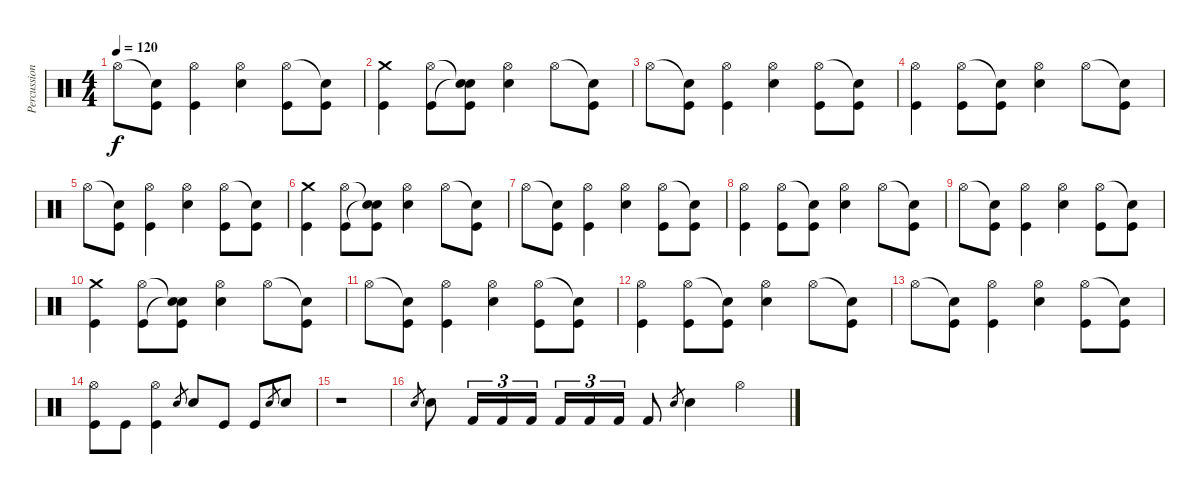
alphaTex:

\track ("Percussion" "Percussion") {instrument percussion}
\staff {score}
\articulation defaults
\ts (4 4)
\tempo 120
\clef neutral
\ks c "Hi-Hat (open)".8{dy f}
("Snare (hit)"{t} "Kick (hit)").8 ("Hi-Hat (open)" "Kick (hit)").4 ("Hi-Hat (open)" "Electric Snare (hit)").4 ("Hi-Hat (open)" "Kick (hit)").8 ("Snare (hit)"{t} "Kick (hit)").8 |
("Crash medium (hit)" "Kick (hit)").4 ("Hi-Hat (open)" "Kick (hit)").8 ("Snare (hit)"{t} "Snare (hit)"{t} "Kick (hit)").8 ("Hi-Hat (open)" "Electric Snare (hit)").4 "Hi-Hat (open)".8 ("Snare (hit)"{t} "Kick (hit)").8 |
"Hi-Hat (open)".8 ("Snare (hit)"{t} "Kick (hit)").8 ("Hi-Hat (open)" "Kick (hit)").4 ("Hi-Hat (open)" "Electric Snare (hit)").4 ("Hi-Hat (open)" "Kick (hit)").8 ("Snare (hit)"{t} "Kick (hit)").8 |
("Hi-Hat (open)" "Kick (hit)").4 ("Hi-Hat (open)" "Kick (hit)").8 ("Snare (hit)"{t} "Kick (hit)").8 ("Hi-Hat (open)" "Electric Snare (hit)").4 "Hi-Hat (open)".8 ("Snare (hit)"{t} "Kick (hit)").8 |
"Hi-Hat (open)".8 ("Snare (hit)"{t} "Kick (hit)").8 ("Hi-Hat (open)" "Kick (hit)").4 ("Hi-Hat (open)" "Electric Snare (hit)").4 ("Hi-Hat (open)" "Kick (hit)").8 ("Snare (hit)"{t} "Kick (hit)").8 |
("Crash medium (hit)" "Kick (hit)").4 ("Hi-Hat (open)" "Kick (hit)").8 ("Snare (hit)"{t} "Snare (hit)"{t} "Kick (hit)").8 ("Hi-Hat (open)" "Electric Snare (hit)").4 "Hi-Hat (open)".8 ("Snare (hit)"{t} "Kick (hit)").8 |
"Hi-Hat (open)".8 ("Snare (hit)"{t} "Kick (hit)").8 ("Hi-Hat (open)" "Kick (hit)").4 ("Hi-Hat (open)" "Electric Snare (hit)").4 ("Hi-Hat (open)" "Kick (hit)").8 ("Snare (hit)"{t} "Kick (hit)").8 |
("Hi-Hat (open)" "Kick (hit)").4 ("Hi-Hat (open)" "Kick (hit)").8 ("Snare (hit)"{t} "Kick (hit)").8 ("Hi-Hat (open)" "Electric Snare (hit)").4 "Hi-Hat (open)".8 ("Snare (hit)"{t} "Kick (hit)").8 |
"Hi-Hat (open)".8 ("Snare (hit)"{t} "Kick (hit)").8 ("Hi-Hat (open)" "Kick (hit)").4 ("Hi-Hat (open)" "Electric Snare (hit)").4 ("Hi-Hat (open)" "Kick (hit)").8 ("Snare (hit)"{t} "Kick (hit)").8 |
("Crash medium (hit)" "Kick (hit)").4 ("Hi-Hat (open)" "Kick (hit)").8 ("Snare (hit)"{t} "Snare (hit)"{t} "Kick (hit)").8 ("Hi-Hat (open)" "Electric Snare (hit)").4 "Hi-Hat (open)".8 ("Snare (hit)"{t} "Kick (hit)").8 |
"Hi-Hat (open)".8 ("Snare (hit)"{t} "Kick (hit)").8 ("Hi-Hat (open)" "Kick (hit)").4 ("Hi-Hat (open)" "Electric Snare (hit)").4 ("Hi-Hat (open)" "Kick (hit)").8 ("Snare (hit)"{t} "Kick (hit)").8 |
("Hi-Hat (open)" "Kick (hit)").4 ("Hi-Hat (open)" "Kick (hit)").8 ("Snare (hit)"{t} "Kick (hit)").8 ("Hi-Hat (open)" "Electric Snare (hit)").4 "Hi-Hat (open)".8 ("Snare (hit)"{t} "Kick (hit)").8 |
"Hi-Hat (open)".8 ("Snare (hit)"{t} "Kick (hit)").8 ("Hi-Hat (open)" "Kick (hit)").4 ("Hi-Hat (open)" "Electric Snare (hit)").4 ("Hi-Hat (open)" "Kick (hit)").8 ("Snare (hit)"{t} "Kick (hit)").8 |
("Hi-Hat (open)" "Kick (hit)").8 "Kick (hit)".8 ("Hi-Hat (open)" "Kick (hit)").4 "Electric Snare (hit)".8{gr} "Electric Snare (hit)".8 "Kick (hit)".8 "Kick (hit)".8 "Electric Snare (hit)".8{gr} "Electric Snare (hit)".8 |
r.1 |
"Electric Snare (hit)".8{gr} "Electric Snare (hit)".8 "Kick (hit) 2".16{tu (3 2)} "Kick (hit) 2".16{tu (3 2)} "Kick (hit) 2".16{tu (3 2)} "Kick (hit) 2".16{tu (3 2)} "Kick (hit) 2".16{tu (3 2)} "Kick (hit) 2".16{tu (3 2)} "Kick (hit) 2".8 "Electric Snare (hit)".8{gr} "Electric Snare (hit)".4 "Hi-Hat (open)".4
